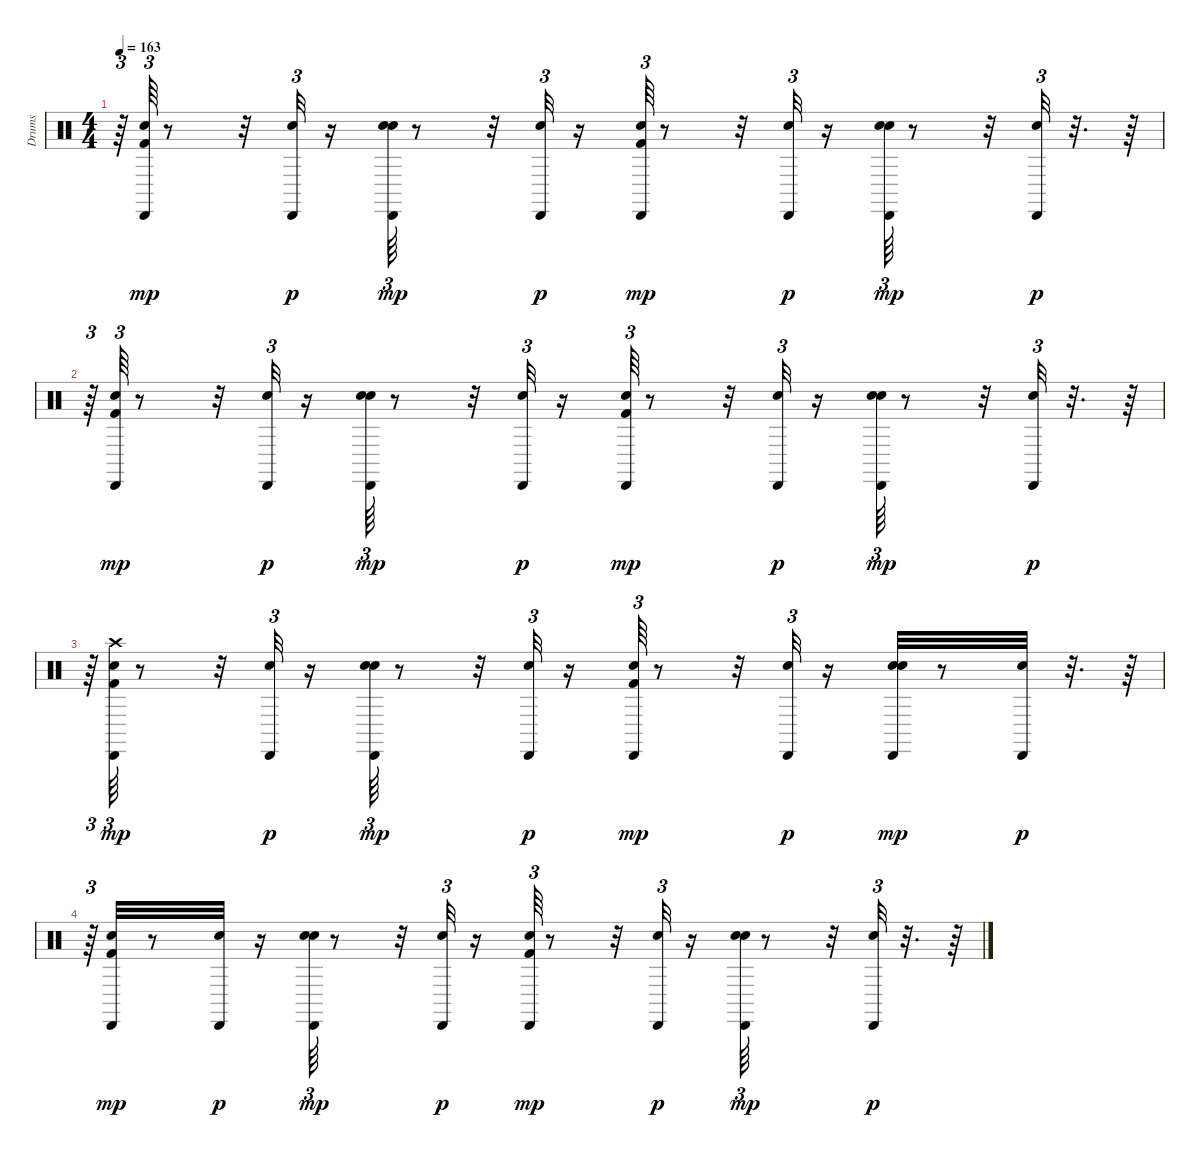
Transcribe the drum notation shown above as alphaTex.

\track ("Drums               " "Drums     ") {instrument percussion}
\staff {score}
\articulation defaults
\ts (4 4)
\tempo 163
\clef neutral
\ks c
r.64{tu (3 2) dy p} ("Kick (hit) 2" "Snare (hit) 2" "Cabasa (hit)").64{tu (3 2) dy mp} r.8 r.32 ("Snare (hit) 2" "Cabasa (hit)").32{tu (3 2) dy p} r.16 ("Snare (hit) 2" "Hand Clap (hit)" "Cabasa (hit)").64{tu (3 2) dy mp} r.8 r.32 ("Snare (hit) 2" "Cabasa (hit)").32{tu (3 2) dy p} r.16 ("Kick (hit) 2" "Snare (hit) 2" "Cabasa (hit)").64{tu (3 2) dy mp} r.8 r.32 ("Snare (hit) 2" "Cabasa (hit)").32{tu (3 2) dy p} r.16 ("Snare (hit) 2" "Hand Clap (hit)" "Cabasa (hit)").64{tu (3 2) dy mp} r.8 r.32 ("Snare (hit) 2" "Cabasa (hit)").32{tu (3 2) dy p} r.32{d} r.64 |
r.64{tu (3 2)} ("Kick (hit) 2" "Snare (hit) 2" "Cabasa (hit)").64{tu (3 2) dy mp} r.8 r.32 ("Snare (hit) 2" "Cabasa (hit)").32{tu (3 2) dy p} r.16 ("Snare (hit) 2" "Hand Clap (hit)" "Cabasa (hit)").64{tu (3 2) dy mp} r.8 r.32 ("Snare (hit) 2" "Cabasa (hit)").32{tu (3 2) dy p} r.16 ("Kick (hit) 2" "Snare (hit) 2" "Cabasa (hit)").64{tu (3 2) dy mp} r.8 r.32 ("Snare (hit) 2" "Cabasa (hit)").32{tu (3 2) dy p} r.16 ("Snare (hit) 2" "Hand Clap (hit)" "Cabasa (hit)").64{tu (3 2) dy mp} r.8 r.32 ("Snare (hit) 2" "Cabasa (hit)").32{tu (3 2) dy p} r.32{d} r.64 |
r.64{tu (3 2)} ("Kick (hit) 2" "Snare (hit) 2" "Crash high (hit)" "Cabasa (hit)").64{tu (3 2) dy mp} r.8 r.32 ("Snare (hit) 2" "Cabasa (hit)").32{tu (3 2) dy p} r.16 ("Snare (hit) 2" "Hand Clap (hit)" "Cabasa (hit)").64{tu (3 2) dy mp} r.8 r.32 ("Snare (hit) 2" "Cabasa (hit)").32{tu (3 2) dy p} r.16 ("Kick (hit) 2" "Snare (hit) 2" "Cabasa (hit)").64{tu (3 2) dy mp} r.8 r.32 ("Snare (hit) 2" "Cabasa (hit)").32{tu (3 2) dy p} r.16 ("Snare (hit) 2" "Hand Clap (hit)" "Cabasa (hit)").32{dy mp} r.8 ("Snare (hit) 2" "Cabasa (hit)").32{dy p} r.32{d} r.64 |
r.64{tu (3 2)} ("Kick (hit) 2" "Snare (hit) 2" "Cabasa (hit)").32{dy mp} r.8 ("Snare (hit) 2" "Cabasa (hit)").32{dy p} r.16 ("Snare (hit) 2" "Hand Clap (hit)" "Cabasa (hit)").64{tu (3 2) dy mp} r.8 r.32 ("Snare (hit) 2" "Cabasa (hit)").32{tu (3 2) dy p} r.16 ("Kick (hit) 2" "Snare (hit) 2" "Cabasa (hit)").64{tu (3 2) dy mp} r.8 r.32 ("Snare (hit) 2" "Cabasa (hit)").32{tu (3 2) dy p} r.16 ("Snare (hit) 2" "Hand Clap (hit)" "Cabasa (hit)").64{tu (3 2) dy mp} r.8 r.32 ("Snare (hit) 2" "Cabasa (hit)").32{tu (3 2) dy p} r.32{d} r.64
